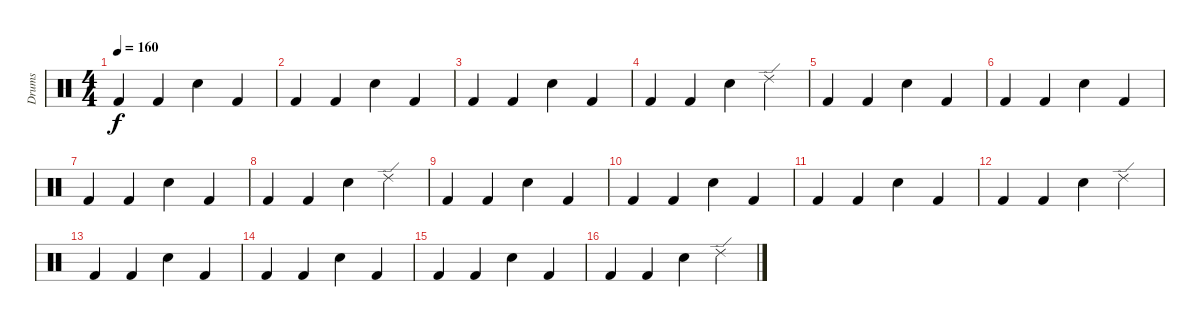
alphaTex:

\track ("Drums" "Drums") {instrument percussion}
\staff {score}
\articulation defaults
\ts (4 4)
\tempo 160
\clef neutral
\ks c "Kick (hit) 2".4{dy f} "Kick (hit) 2".4 "Snare (hit) 2".4 "Kick (hit) 2".4
|
"Kick (hit) 2".4 "Kick (hit) 2".4 "Snare (hit) 2".4 "Kick (hit) 2".4 |
"Kick (hit) 2".4 "Kick (hit) 2".4 "Snare (hit) 2".4 "Kick (hit) 2".4 |
"Kick (hit) 2".4 "Kick (hit) 2".4 "Snare (hit) 2".4 "Ride (edge) 2".4 |
"Kick (hit) 2".4 "Kick (hit) 2".4 "Snare (hit) 2".4 "Kick (hit) 2".4 |
"Kick (hit) 2".4 "Kick (hit) 2".4 "Snare (hit) 2".4 "Kick (hit) 2".4 |
"Kick (hit) 2".4 "Kick (hit) 2".4 "Snare (hit) 2".4 "Kick (hit) 2".4 |
"Kick (hit) 2".4 "Kick (hit) 2".4 "Snare (hit) 2".4 "Ride (edge) 2".4 |
"Kick (hit) 2".4 "Kick (hit) 2".4 "Snare (hit) 2".4 "Kick (hit) 2".4 |
"Kick (hit) 2".4 "Kick (hit) 2".4 "Snare (hit) 2".4 "Kick (hit) 2".4 |
"Kick (hit) 2".4 "Kick (hit) 2".4 "Snare (hit) 2".4 "Kick (hit) 2".4 |
"Kick (hit) 2".4 "Kick (hit) 2".4 "Snare (hit) 2".4 "Ride (edge) 2".4 |
"Kick (hit) 2".4 "Kick (hit) 2".4 "Snare (hit) 2".4 "Kick (hit) 2".4 |
"Kick (hit) 2".4 "Kick (hit) 2".4 "Snare (hit) 2".4 "Kick (hit) 2".4 |
"Kick (hit) 2".4 "Kick (hit) 2".4 "Snare (hit) 2".4 "Kick (hit) 2".4 |
"Kick (hit) 2".4 "Kick (hit) 2".4 "Snare (hit) 2".4 "Ride (edge) 2".4
